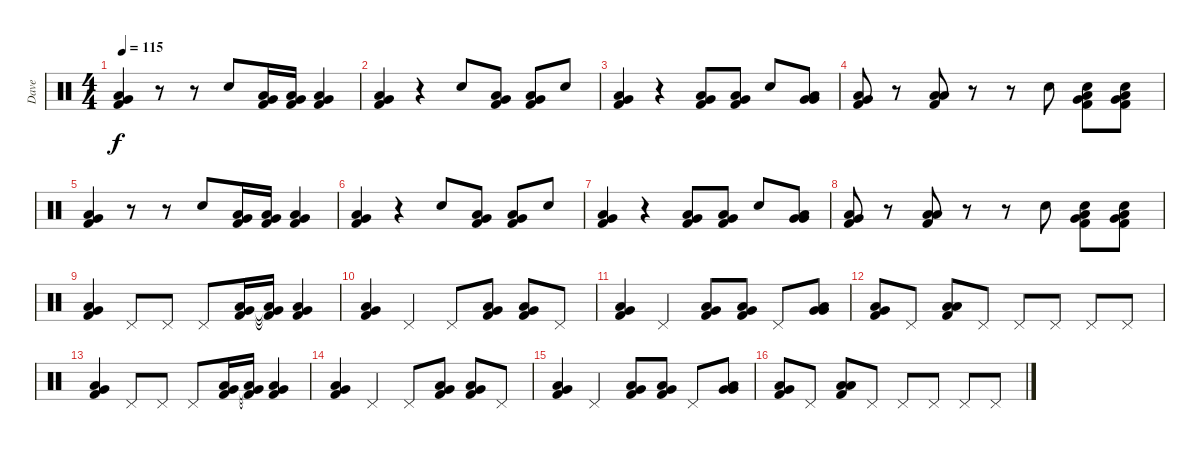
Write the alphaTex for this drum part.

\track ("Dave" "Dave") {instrument percussion}
\staff {score}
\articulation defaults
\ts (4 4)
\tempo 115
\clef neutral
\ks c
("Low Floor Tom (hit)" "Very Low Tom (hit)" "Kick (hit) 2").4{dy f} r.8 r.8 "Electric Snare (hit)".8 ("Very Low Tom (hit)" "Kick (hit) 2" "Low Floor Tom (hit)").16 ("Very Low Tom (hit)" "Kick (hit) 2" "Low Floor Tom (hit)").16 ("Very Low Tom (hit)" "Kick (hit) 2" "Low Floor Tom (hit)").4 |
("Very Low Tom (hit)" "Kick (hit) 2" "Low Floor Tom (hit)").4 r.4 "Electric Snare (hit)".8 ("Low Floor Tom (hit)" "Very Low Tom (hit)" "Kick (hit) 2").8 ("Low Floor Tom (hit)" "Very Low Tom (hit)" "Kick (hit) 2").8 "Electric Snare (hit)".8 |
("Very Low Tom (hit)" "Kick (hit) 2" "Low Floor Tom (hit)").4 r.4 ("Very Low Tom (hit)" "Low Floor Tom (hit)" "Kick (hit) 2").8 ("Very Low Tom (hit)" "Kick (hit) 2" "Low Floor Tom (hit)").8 "Electric Snare (hit)".8 ("Very Low Tom (hit)" "Very Low Tom (hit)" "Low Floor Tom (hit)").8 |
("Low Floor Tom (hit)" "Very Low Tom (hit)" "Kick (hit) 2").8 r.8 ("Low Floor Tom (hit)" "Low Floor Tom (hit)" "Kick (hit) 2").8 r.8 r.8 "Electric Snare (hit)".8 ("Electric Snare (hit)" "Very Low Tom (hit)" "Low Floor Tom (hit)" "Kick (hit) 2").8 ("Electric Snare (hit)" "Very Low Tom (hit)" "Low Floor Tom (hit)" "Kick (hit) 2").8 |
("Low Floor Tom (hit)" "Very Low Tom (hit)" "Kick (hit) 2").4 r.8 r.8 "Electric Snare (hit)".8 ("Very Low Tom (hit)" "Kick (hit) 2" "Low Floor Tom (hit)").16 ("Very Low Tom (hit)" "Kick (hit) 2" "Low Floor Tom (hit)").16 ("Very Low Tom (hit)" "Kick (hit) 2" "Low Floor Tom (hit)").4 |
("Very Low Tom (hit)" "Kick (hit) 2" "Low Floor Tom (hit)").4 r.4 "Electric Snare (hit)".8 ("Low Floor Tom (hit)" "Very Low Tom (hit)" "Kick (hit) 2").8 ("Low Floor Tom (hit)" "Very Low Tom (hit)" "Kick (hit) 2").8 "Electric Snare (hit)".8 |
("Very Low Tom (hit)" "Kick (hit) 2" "Low Floor Tom (hit)").4 r.4 ("Very Low Tom (hit)" "Low Floor Tom (hit)" "Kick (hit) 2").8 ("Very Low Tom (hit)" "Kick (hit) 2" "Low Floor Tom (hit)").8 "Electric Snare (hit)".8 ("Very Low Tom (hit)" "Very Low Tom (hit)" "Low Floor Tom (hit)").8 |
("Low Floor Tom (hit)" "Very Low Tom (hit)" "Kick (hit) 2").8 r.8 ("Low Floor Tom (hit)" "Low Floor Tom (hit)" "Kick (hit) 2").8 r.8 r.8 "Electric Snare (hit)".8 ("Electric Snare (hit)" "Very Low Tom (hit)" "Low Floor Tom (hit)" "Kick (hit) 2").8 ("Electric Snare (hit)" "Very Low Tom (hit)" "Low Floor Tom (hit)" "Kick (hit) 2").8 |
("Low Floor Tom (hit)" "Very Low Tom (hit)" "Kick (hit) 2").4 "Pedal Hi-Hat (hit)".8 "Pedal Hi-Hat (hit)".8 "Pedal Hi-Hat (hit)".8 ("Very Low Tom (hit)" "Kick (hit) 2" "Low Floor Tom (hit)").16 ("Very Low Tom (hit)"{t} "Kick (hit) 2"{t} "Low Floor Tom (hit)"{t}).16 ("Very Low Tom (hit)" "Kick (hit) 2" "Low Floor Tom (hit)").4 |
("Very Low Tom (hit)" "Kick (hit) 2" "Low Floor Tom (hit)").4 "Pedal Hi-Hat (hit)".4 "Pedal Hi-Hat (hit)".8 ("Low Floor Tom (hit)" "Very Low Tom (hit)" "Kick (hit) 2").8 ("Low Floor Tom (hit)" "Very Low Tom (hit)" "Kick (hit) 2").8 "Pedal Hi-Hat (hit)".8 |
("Very Low Tom (hit)" "Kick (hit) 2" "Low Floor Tom (hit)").4 "Pedal Hi-Hat (hit)".4 ("Very Low Tom (hit)" "Low Floor Tom (hit)" "Kick (hit) 2").8 ("Very Low Tom (hit)" "Kick (hit) 2" "Low Floor Tom (hit)").8 "Pedal Hi-Hat (hit)".8 ("Very Low Tom (hit)" "Very Low Tom (hit)" "Low Floor Tom (hit)").8 |
("Low Floor Tom (hit)" "Very Low Tom (hit)" "Kick (hit) 2").8 "Pedal Hi-Hat (hit)".8 ("Low Floor Tom (hit)" "Low Floor Tom (hit)" "Kick (hit) 2").8 "Pedal Hi-Hat (hit)".8 "Pedal Hi-Hat (hit)".8 "Pedal Hi-Hat (hit)".8 "Pedal Hi-Hat (hit)".8 "Pedal Hi-Hat (hit)".8 |
("Low Floor Tom (hit)" "Very Low Tom (hit)" "Kick (hit) 2").4 "Pedal Hi-Hat (hit)".8 "Pedal Hi-Hat (hit)".8 "Pedal Hi-Hat (hit)".8 ("Very Low Tom (hit)" "Kick (hit) 2" "Low Floor Tom (hit)").16 ("Very Low Tom (hit)"{t} "Kick (hit) 2"{t} "Low Floor Tom (hit)"{t}).16 ("Very Low Tom (hit)" "Kick (hit) 2" "Low Floor Tom (hit)").4 |
("Very Low Tom (hit)" "Kick (hit) 2" "Low Floor Tom (hit)").4 "Pedal Hi-Hat (hit)".4 "Pedal Hi-Hat (hit)".8 ("Low Floor Tom (hit)" "Very Low Tom (hit)" "Kick (hit) 2").8 ("Low Floor Tom (hit)" "Very Low Tom (hit)" "Kick (hit) 2").8 "Pedal Hi-Hat (hit)".8 |
("Very Low Tom (hit)" "Kick (hit) 2" "Low Floor Tom (hit)").4 "Pedal Hi-Hat (hit)".4 ("Very Low Tom (hit)" "Low Floor Tom (hit)" "Kick (hit) 2").8 ("Very Low Tom (hit)" "Kick (hit) 2" "Low Floor Tom (hit)").8 "Pedal Hi-Hat (hit)".8 ("Very Low Tom (hit)" "Very Low Tom (hit)" "Low Floor Tom (hit)").8 |
("Low Floor Tom (hit)" "Very Low Tom (hit)" "Kick (hit) 2").8 "Pedal Hi-Hat (hit)".8 ("Low Floor Tom (hit)" "Low Floor Tom (hit)" "Kick (hit) 2").8 "Pedal Hi-Hat (hit)".8 "Pedal Hi-Hat (hit)".8 "Pedal Hi-Hat (hit)".8 "Pedal Hi-Hat (hit)".8 "Pedal Hi-Hat (hit)".8
